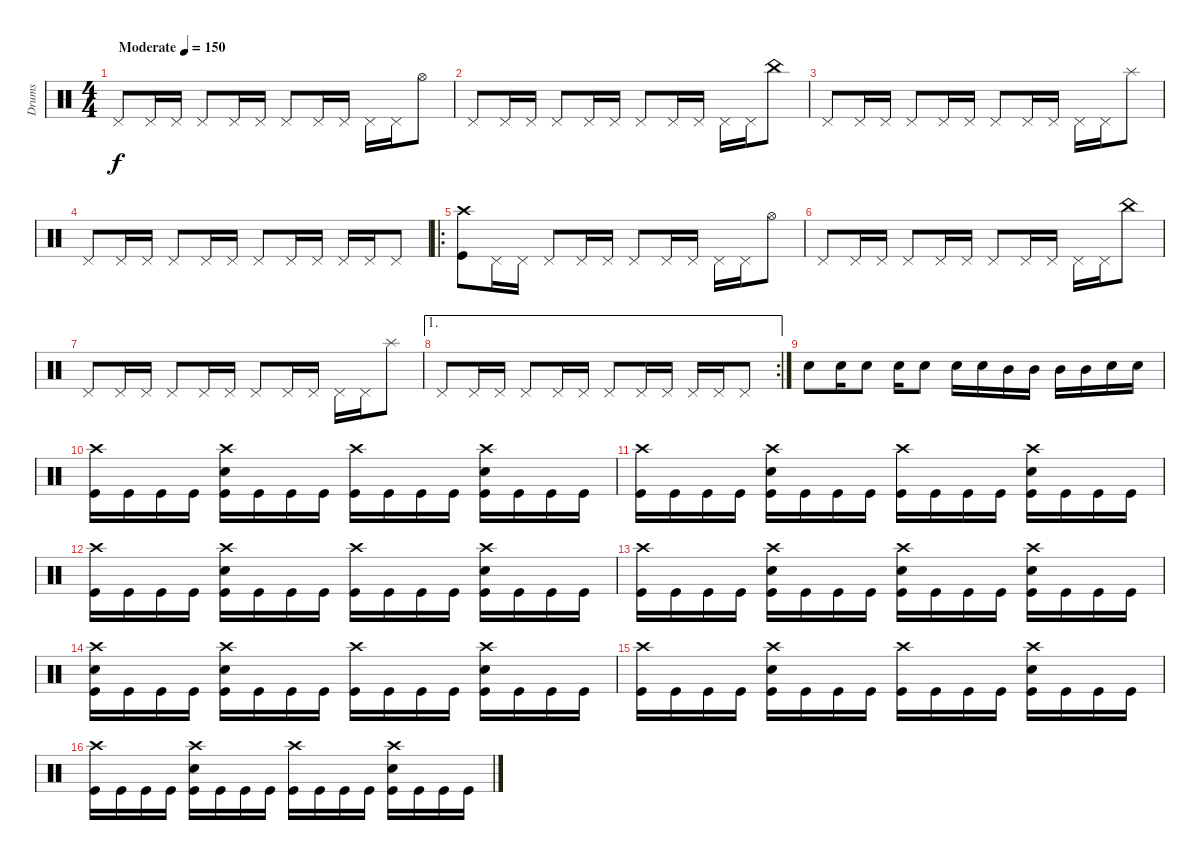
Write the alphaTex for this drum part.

\track ("Drums" "Drums") {instrument percussion}
\staff {score}
\articulation defaults
\ts (4 4)
\tempo (150 "Moderate")
\clef neutral
\ks c "Pedal Hi-Hat (hit)".8{dy f} "Pedal Hi-Hat (hit)".16 "Pedal Hi-Hat (hit)".16 "Pedal Hi-Hat (hit)".8 "Pedal Hi-Hat (hit)".16 "Pedal Hi-Hat (hit)".16 "Pedal Hi-Hat (hit)".8 "Pedal Hi-Hat (hit)".16 "Pedal Hi-Hat (hit)".16 "Pedal Hi-Hat (hit)".16 "Pedal Hi-Hat (hit)".16 "Hi-Hat (open)".8
|
"Pedal Hi-Hat (hit)".8 "Pedal Hi-Hat (hit)".16 "Pedal Hi-Hat (hit)".16 "Pedal Hi-Hat (hit)".8 "Pedal Hi-Hat (hit)".16 "Pedal Hi-Hat (hit)".16 "Pedal Hi-Hat (hit)".8 "Pedal Hi-Hat (hit)".16 "Pedal Hi-Hat (hit)".16 "Pedal Hi-Hat (hit)".16 "Pedal Hi-Hat (hit)".16 "China (hit)".8 |
"Pedal Hi-Hat (hit)".8 "Pedal Hi-Hat (hit)".16 "Pedal Hi-Hat (hit)".16 "Pedal Hi-Hat (hit)".8 "Pedal Hi-Hat (hit)".16 "Pedal Hi-Hat (hit)".16 "Pedal Hi-Hat (hit)".8 "Pedal Hi-Hat (hit)".16 "Pedal Hi-Hat (hit)".16 "Pedal Hi-Hat (hit)".16 "Pedal Hi-Hat (hit)".16 "Splash (hit)".8 |
"Pedal Hi-Hat (hit)".8 "Pedal Hi-Hat (hit)".16 "Pedal Hi-Hat (hit)".16 "Pedal Hi-Hat (hit)".8 "Pedal Hi-Hat (hit)".16 "Pedal Hi-Hat (hit)".16 "Pedal Hi-Hat (hit)".8 "Pedal Hi-Hat (hit)".16 "Pedal Hi-Hat (hit)".16 "Pedal Hi-Hat (hit)".16 "Pedal Hi-Hat (hit)".16 "Pedal Hi-Hat (hit)".8 |
\ro
("Crash high (hit)" "Kick (hit)").8 "Pedal Hi-Hat (hit)".16 "Pedal Hi-Hat (hit)".16 "Pedal Hi-Hat (hit)".8 "Pedal Hi-Hat (hit)".16 "Pedal Hi-Hat (hit)".16 "Pedal Hi-Hat (hit)".8 "Pedal Hi-Hat (hit)".16 "Pedal Hi-Hat (hit)".16 "Pedal Hi-Hat (hit)".16 "Pedal Hi-Hat (hit)".16 "Hi-Hat (open)".8 |
"Pedal Hi-Hat (hit)".8 "Pedal Hi-Hat (hit)".16 "Pedal Hi-Hat (hit)".16 "Pedal Hi-Hat (hit)".8 "Pedal Hi-Hat (hit)".16 "Pedal Hi-Hat (hit)".16 "Pedal Hi-Hat (hit)".8 "Pedal Hi-Hat (hit)".16 "Pedal Hi-Hat (hit)".16 "Pedal Hi-Hat (hit)".16 "Pedal Hi-Hat (hit)".16 "China (hit)".8 |
"Pedal Hi-Hat (hit)".8 "Pedal Hi-Hat (hit)".16 "Pedal Hi-Hat (hit)".16 "Pedal Hi-Hat (hit)".8 "Pedal Hi-Hat (hit)".16 "Pedal Hi-Hat (hit)".16 "Pedal Hi-Hat (hit)".8 "Pedal Hi-Hat (hit)".16 "Pedal Hi-Hat (hit)".16 "Pedal Hi-Hat (hit)".16 "Pedal Hi-Hat (hit)".16 "Splash (hit)".8 |
\ae 1
\rc 2 "Pedal Hi-Hat (hit)".8 "Pedal Hi-Hat (hit)".16 "Pedal Hi-Hat (hit)".16 "Pedal Hi-Hat (hit)".8 "Pedal Hi-Hat (hit)".16 "Pedal Hi-Hat (hit)".16 "Pedal Hi-Hat (hit)".8 "Pedal Hi-Hat (hit)".16 "Pedal Hi-Hat (hit)".16 "Pedal Hi-Hat (hit)".16 "Pedal Hi-Hat (hit)".16 "Pedal Hi-Hat (hit)".8
|
"Electric Snare (hit)".8 "Electric Snare (hit)".16 "Electric Snare (hit)".8 "Electric Snare (hit)".16 "Electric Snare (hit)".8 "Electric Snare (hit)".16 "Electric Snare (hit)".16 "Mid Tom (hit)".16 "Mid Tom (hit)".16 "Mid Tom (hit)".16 "Mid Tom (hit)".16 "Electric Snare (hit)".16 "Electric Snare (hit)".16 |
("Crash high (hit)" "Kick (hit)").16 "Kick (hit)".16 "Kick (hit)".16 "Kick (hit)".16 ("Crash high (hit)" "Electric Snare (hit)" "Kick (hit)").16 "Kick (hit)".16 "Kick (hit)".16 "Kick (hit)".16 ("Crash high (hit)" "Kick (hit)").16 "Kick (hit)".16 "Kick (hit)".16 "Kick (hit)".16 ("Crash high (hit)" "Electric Snare (hit)" "Kick (hit)").16 "Kick (hit)".16 "Kick (hit)".16 "Kick (hit)".16 |
("Crash high (hit)" "Kick (hit)").16 "Kick (hit)".16 "Kick (hit)".16 "Kick (hit)".16 ("Crash high (hit)" "Electric Snare (hit)" "Kick (hit)").16 "Kick (hit)".16 "Kick (hit)".16 "Kick (hit)".16 ("Crash high (hit)" "Kick (hit)").16 "Kick (hit)".16 "Kick (hit)".16 "Kick (hit)".16 ("Crash high (hit)" "Electric Snare (hit)" "Kick (hit)").16 "Kick (hit)".16 "Kick (hit)".16 "Kick (hit)".16 |
("Crash high (hit)" "Kick (hit)").16 "Kick (hit)".16 "Kick (hit)".16 "Kick (hit)".16 ("Crash high (hit)" "Electric Snare (hit)" "Kick (hit)").16 "Kick (hit)".16 "Kick (hit)".16 "Kick (hit)".16 ("Crash high (hit)" "Kick (hit)").16 "Kick (hit)".16 "Kick (hit)".16 "Kick (hit)".16 ("Crash high (hit)" "Electric Snare (hit)" "Kick (hit)").16 "Kick (hit)".16 "Kick (hit)".16 "Kick (hit)".16 |
("Crash high (hit)" "Kick (hit)").16 "Kick (hit)".16 "Kick (hit)".16 "Kick (hit)".16 ("Crash high (hit)" "Electric Snare (hit)" "Kick (hit)").16 "Kick (hit)".16 "Kick (hit)".16 "Kick (hit)".16 ("Crash high (hit)" "Electric Snare (hit)" "Kick (hit)").16 "Kick (hit)".16 "Kick (hit)".16 "Kick (hit)".16 ("Crash high (hit)" "Electric Snare (hit)" "Kick (hit)").16 "Kick (hit)".16 "Kick (hit)".16 "Kick (hit)".16 |
("Crash high (hit)" "Electric Snare (hit)" "Kick (hit)").16 "Kick (hit)".16 "Kick (hit)".16 "Kick (hit)".16 ("Crash high (hit)" "Electric Snare (hit)" "Kick (hit)").16 "Kick (hit)".16 "Kick (hit)".16 "Kick (hit)".16 ("Crash high (hit)" "Kick (hit)").16 "Kick (hit)".16 "Kick (hit)".16 "Kick (hit)".16 ("Crash high (hit)" "Electric Snare (hit)" "Kick (hit)").16 "Kick (hit)".16 "Kick (hit)".16 "Kick (hit)".16 |
("Crash high (hit)" "Kick (hit)").16 "Kick (hit)".16 "Kick (hit)".16 "Kick (hit)".16 ("Crash high (hit)" "Electric Snare (hit)" "Kick (hit)").16 "Kick (hit)".16 "Kick (hit)".16 "Kick (hit)".16 ("Crash high (hit)" "Kick (hit)").16 "Kick (hit)".16 "Kick (hit)".16 "Kick (hit)".16 ("Crash high (hit)" "Electric Snare (hit)" "Kick (hit)").16 "Kick (hit)".16 "Kick (hit)".16 "Kick (hit)".16 |
("Crash high (hit)" "Kick (hit)").16 "Kick (hit)".16 "Kick (hit)".16 "Kick (hit)".16 ("Crash high (hit)" "Electric Snare (hit)" "Kick (hit)").16 "Kick (hit)".16 "Kick (hit)".16 "Kick (hit)".16 ("Crash high (hit)" "Kick (hit)").16 "Kick (hit)".16 "Kick (hit)".16 "Kick (hit)".16 ("Crash high (hit)" "Electric Snare (hit)" "Kick (hit)").16 "Kick (hit)".16 "Kick (hit)".16 "Kick (hit)".16
